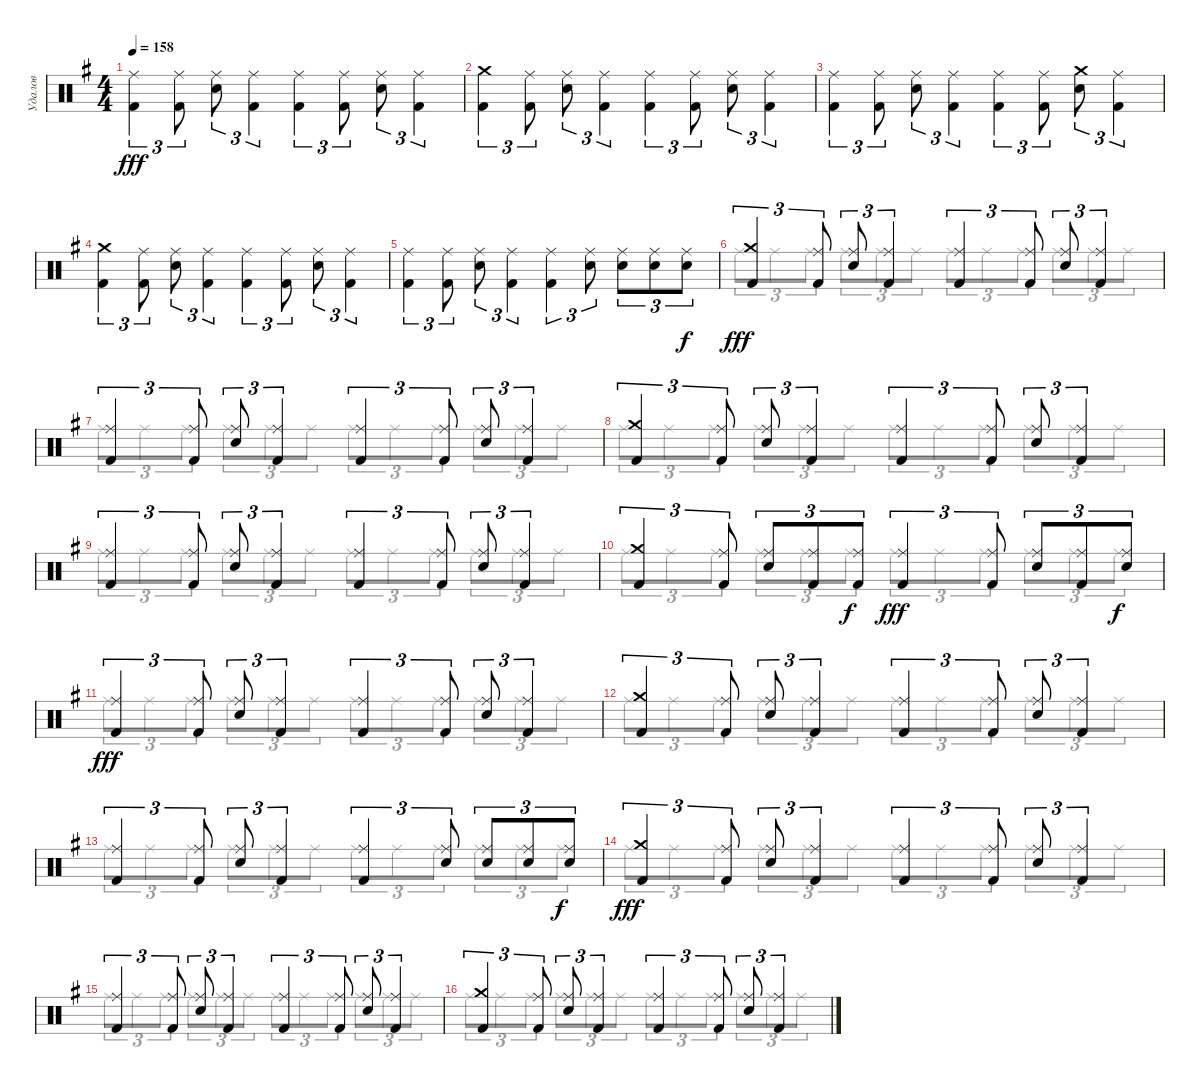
\track ("Удалов" "Удалов") {instrument percussion}
\staff {score}
\articulation defaults
\voice
\ts (4 4)
\tempo 158
\clef neutral
\ks g
("Kick (hit) 2" "Ride (middle)").4{tu (3 2) dy fff} ("Kick (hit) 2" "Ride (middle)").8{tu (3 2)} ("Electric Snare (hit)" "Ride (middle)").8{tu (3 2)} ("Kick (hit) 2" "Ride (middle)").4{tu (3 2)} ("Kick (hit) 2" "Ride (middle)").4{tu (3 2)} ("Kick (hit) 2" "Ride (middle)").8{tu (3 2)} ("Electric Snare (hit)" "Ride (middle)").8{tu (3 2)} ("Kick (hit) 2" "Ride (middle)").4{tu (3 2)} |
("Kick (hit) 2" "Crash medium (hit)").4{tu (3 2)} ("Kick (hit) 2" "Ride (middle)").8{tu (3 2)} ("Electric Snare (hit)" "Ride (middle)").8{tu (3 2)} ("Kick (hit) 2" "Ride (middle)").4{tu (3 2)} ("Kick (hit) 2" "Ride (middle)").4{tu (3 2)} ("Kick (hit) 2" "Ride (middle)").8{tu (3 2)} ("Electric Snare (hit)" "Ride (middle)").8{tu (3 2)} ("Kick (hit) 2" "Ride (middle)").4{tu (3 2)} |
("Kick (hit) 2" "Ride (middle)").4{tu (3 2)} ("Kick (hit) 2" "Ride (middle)").8{tu (3 2)} ("Electric Snare (hit)" "Ride (middle)").8{tu (3 2)} ("Kick (hit) 2" "Ride (middle)").4{tu (3 2)} ("Kick (hit) 2" "Ride (middle)").4{tu (3 2)} ("Kick (hit) 2" "Ride (middle)").8{tu (3 2)} ("Electric Snare (hit)" "Crash medium (hit)").8{tu (3 2)} ("Kick (hit) 2" "Ride (middle)").4{tu (3 2)} |
("Kick (hit) 2" "Crash medium (hit)").4{tu (3 2)} ("Kick (hit) 2" "Ride (middle)").8{tu (3 2)} ("Electric Snare (hit)" "Ride (middle)").8{tu (3 2)} ("Kick (hit) 2" "Ride (middle)").4{tu (3 2)} ("Kick (hit) 2" "Ride (middle)").4{tu (3 2)} ("Kick (hit) 2" "Ride (middle)").8{tu (3 2)} ("Electric Snare (hit)" "Ride (middle)").8{tu (3 2)} ("Kick (hit) 2" "Ride (middle)").4{tu (3 2)} |
("Kick (hit) 2" "Ride (middle)").4{tu (3 2)} ("Kick (hit) 2" "Ride (middle)").8{tu (3 2)} ("Electric Snare (hit)" "Ride (middle)").8{tu (3 2)} ("Kick (hit) 2" "Ride (middle)").4{tu (3 2)} ("Kick (hit) 2" "Ride (middle)").4{tu (3 2)} ("Electric Snare (hit)" "Ride (middle)").8{tu (3 2)} ("Electric Snare (hit)" "Ride (middle)").8{tu (3 2)} ("Electric Snare (hit)" "Ride (middle)").8{tu (3 2)} ("Electric Snare (hit)" "Ride (middle)").8{tu (3 2) dy f} |
("Kick (hit) 2" "Crash medium (hit)").4{tu (3 2) dy fff} ("Kick (hit) 2" "Ride (middle)").8{tu (3 2)} ("Electric Snare (hit)" "Ride (middle)").8{tu (3 2)} ("Kick (hit) 2" "Ride (middle)").4{tu (3 2)} ("Kick (hit) 2" "Ride (middle)").4{tu (3 2)} ("Kick (hit) 2" "Ride (middle)").8{tu (3 2)} ("Electric Snare (hit)" "Ride (middle)").8{tu (3 2)} ("Kick (hit) 2" "Ride (middle)").4{tu (3 2)} |
("Kick (hit) 2" "Ride (middle)").4{tu (3 2)} ("Kick (hit) 2" "Ride (middle)").8{tu (3 2)} ("Electric Snare (hit)" "Ride (middle)").8{tu (3 2)} ("Kick (hit) 2" "Ride (middle)").4{tu (3 2)} ("Kick (hit) 2" "Ride (middle)").4{tu (3 2)} ("Kick (hit) 2" "Ride (middle)").8{tu (3 2)} ("Electric Snare (hit)" "Ride (middle)").8{tu (3 2)} ("Kick (hit) 2" "Ride (middle)").4{tu (3 2)} |
("Kick (hit) 2" "Crash medium (hit)").4{tu (3 2)} ("Kick (hit) 2" "Ride (middle)").8{tu (3 2)} ("Electric Snare (hit)" "Ride (middle)").8{tu (3 2)} ("Kick (hit) 2" "Ride (middle)").4{tu (3 2)} ("Kick (hit) 2" "Ride (middle)").4{tu (3 2)} ("Kick (hit) 2" "Ride (middle)").8{tu (3 2)} ("Electric Snare (hit)" "Ride (middle)").8{tu (3 2)} ("Kick (hit) 2" "Ride (middle)").4{tu (3 2)} |
("Kick (hit) 2" "Ride (middle)").4{tu (3 2)} ("Kick (hit) 2" "Ride (middle)").8{tu (3 2)} ("Electric Snare (hit)" "Ride (middle)").8{tu (3 2)} ("Kick (hit) 2" "Ride (middle)").4{tu (3 2)} ("Kick (hit) 2" "Ride (middle)").4{tu (3 2)} ("Kick (hit) 2" "Ride (middle)").8{tu (3 2)} ("Electric Snare (hit)" "Ride (middle)").8{tu (3 2)} ("Kick (hit) 2" "Ride (middle)").4{tu (3 2)} |
("Kick (hit) 2" "Crash medium (hit)").4{tu (3 2)} ("Kick (hit) 2" "Ride (middle)").8{tu (3 2)} ("Electric Snare (hit)" "Ride (middle)").8{tu (3 2)} ("Kick (hit) 2" "Ride (middle)").8{tu (3 2)} ("Kick (hit) 2" "Ride (middle)").8{tu (3 2) dy f} ("Kick (hit) 2" "Ride (middle)").4{tu (3 2) dy fff} ("Kick (hit) 2" "Ride (middle)").8{tu (3 2)} ("Electric Snare (hit)" "Ride (middle)").8{tu (3 2)} ("Kick (hit) 2" "Ride (middle)").8{tu (3 2)} ("Electric Snare (hit)" "Ride (middle)").8{tu (3 2) dy f} |
("Kick (hit) 2" "Ride (middle)").4{tu (3 2) dy fff} ("Kick (hit) 2" "Ride (middle)").8{tu (3 2)} ("Electric Snare (hit)" "Ride (middle)").8{tu (3 2)} ("Kick (hit) 2" "Ride (middle)").4{tu (3 2)} ("Kick (hit) 2" "Ride (middle)").4{tu (3 2)} ("Kick (hit) 2" "Ride (middle)").8{tu (3 2)} ("Electric Snare (hit)" "Ride (middle)").8{tu (3 2)} ("Kick (hit) 2" "Ride (middle)").4{tu (3 2)} |
("Kick (hit) 2" "Crash medium (hit)").4{tu (3 2)} ("Kick (hit) 2" "Ride (middle)").8{tu (3 2)} ("Electric Snare (hit)" "Ride (middle)").8{tu (3 2)} ("Kick (hit) 2" "Ride (middle)").4{tu (3 2)} ("Kick (hit) 2" "Ride (middle)").4{tu (3 2)} ("Kick (hit) 2" "Ride (middle)").8{tu (3 2)} ("Electric Snare (hit)" "Ride (middle)").8{tu (3 2)} ("Kick (hit) 2" "Ride (middle)").4{tu (3 2)} |
("Kick (hit) 2" "Ride (middle)").4{tu (3 2)} ("Kick (hit) 2" "Ride (middle)").8{tu (3 2)} ("Electric Snare (hit)" "Ride (middle)").8{tu (3 2)} ("Kick (hit) 2" "Ride (middle)").4{tu (3 2)} ("Kick (hit) 2" "Ride (middle)").4{tu (3 2)} ("Electric Snare (hit)" "Ride (middle)").8{tu (3 2)} ("Electric Snare (hit)" "Ride (middle)").8{tu (3 2)} ("Electric Snare (hit)" "Ride (middle)").8{tu (3 2)} ("Electric Snare (hit)" "Ride (middle)").8{tu (3 2) dy f} |
("Kick (hit) 2" "Crash medium (hit)").4{tu (3 2) dy fff} ("Kick (hit) 2" "Ride (middle)").8{tu (3 2)} ("Electric Snare (hit)" "Ride (middle)").8{tu (3 2)} ("Kick (hit) 2" "Ride (middle)").4{tu (3 2)} ("Kick (hit) 2" "Ride (middle)").4{tu (3 2)} ("Kick (hit) 2" "Ride (middle)").8{tu (3 2)} ("Electric Snare (hit)" "Ride (middle)").8{tu (3 2)} ("Kick (hit) 2" "Ride (middle)").4{tu (3 2)} |
("Kick (hit) 2" "Ride (middle)").4{tu (3 2)} ("Kick (hit) 2" "Ride (middle)").8{tu (3 2)} ("Electric Snare (hit)" "Ride (middle)").8{tu (3 2)} ("Kick (hit) 2" "Ride (middle)").4{tu (3 2)} ("Kick (hit) 2" "Ride (middle)").4{tu (3 2)} ("Kick (hit) 2" "Ride (middle)").8{tu (3 2)} ("Electric Snare (hit)" "Ride (middle)").8{tu (3 2)} ("Kick (hit) 2" "Ride (middle)").4{tu (3 2)} |
("Kick (hit) 2" "Crash medium (hit)").4{tu (3 2)} ("Kick (hit) 2" "Ride (middle)").8{tu (3 2)} ("Electric Snare (hit)" "Ride (middle)").8{tu (3 2)} ("Kick (hit) 2" "Ride (middle)").4{tu (3 2)} ("Kick (hit) 2" "Ride (middle)").4{tu (3 2)} ("Kick (hit) 2" "Ride (middle)").8{tu (3 2)} ("Electric Snare (hit)" "Ride (middle)").8{tu (3 2)} ("Kick (hit) 2" "Ride (middle)").4{tu (3 2)}
\voice
\clef neutral
\ottava regular
\simile none
\ks g
|
|
|
|
|
"Ride (middle)".8{tu (3 2) dy fff} "Ride (middle)".8{tu (3 2)} "Ride (middle)".8{tu (3 2)} "Ride (middle)".8{tu (3 2)} "Ride (middle)".8{tu (3 2)} "Ride (middle)".8{tu (3 2)} "Ride (middle)".8{tu (3 2)} "Ride (middle)".8{tu (3 2)} "Ride (middle)".8{tu (3 2)} "Ride (middle)".8{tu (3 2)} "Ride (middle)".8{tu (3 2)} "Ride (middle)".8{tu (3 2)} |
"Ride (middle)".8{tu (3 2)} "Ride (middle)".8{tu (3 2)} "Ride (middle)".8{tu (3 2)} "Ride (middle)".8{tu (3 2)} "Ride (middle)".8{tu (3 2)} "Ride (middle)".8{tu (3 2)} "Ride (middle)".8{tu (3 2)} "Ride (middle)".8{tu (3 2)} "Ride (middle)".8{tu (3 2)} "Ride (middle)".8{tu (3 2)} "Ride (middle)".8{tu (3 2)} "Ride (middle)".8{tu (3 2)} |
"Ride (middle)".8{tu (3 2)} "Ride (middle)".8{tu (3 2)} "Ride (middle)".8{tu (3 2)} "Ride (middle)".8{tu (3 2)} "Ride (middle)".8{tu (3 2)} "Ride (middle)".8{tu (3 2)} "Ride (middle)".8{tu (3 2)} "Ride (middle)".8{tu (3 2)} "Ride (middle)".8{tu (3 2)} "Ride (middle)".8{tu (3 2)} "Ride (middle)".8{tu (3 2)} "Ride (middle)".8{tu (3 2)} |
"Ride (middle)".8{tu (3 2)} "Ride (middle)".8{tu (3 2)} "Ride (middle)".8{tu (3 2)} "Ride (middle)".8{tu (3 2)} "Ride (middle)".8{tu (3 2)} "Ride (middle)".8{tu (3 2)} "Ride (middle)".8{tu (3 2)} "Ride (middle)".8{tu (3 2)} "Ride (middle)".8{tu (3 2)} "Ride (middle)".8{tu (3 2)} "Ride (middle)".8{tu (3 2)} "Ride (middle)".8{tu (3 2)} |
"Ride (middle)".8{tu (3 2)} "Ride (middle)".8{tu (3 2)} "Ride (middle)".8{tu (3 2)} "Ride (middle)".8{tu (3 2)} "Ride (middle)".8{tu (3 2)} "Ride (middle)".8{tu (3 2)} "Ride (middle)".8{tu (3 2)} "Ride (middle)".8{tu (3 2)} "Ride (middle)".8{tu (3 2)} "Ride (middle)".8{tu (3 2)} "Ride (middle)".8{tu (3 2)} "Ride (middle)".8{tu (3 2)} |
"Ride (middle)".8{tu (3 2)} "Ride (middle)".8{tu (3 2)} "Ride (middle)".8{tu (3 2)} "Ride (middle)".8{tu (3 2)} "Ride (middle)".8{tu (3 2)} "Ride (middle)".8{tu (3 2)} "Ride (middle)".8{tu (3 2)} "Ride (middle)".8{tu (3 2)} "Ride (middle)".8{tu (3 2)} "Ride (middle)".8{tu (3 2)} "Ride (middle)".8{tu (3 2)} "Ride (middle)".8{tu (3 2)} |
"Ride (middle)".8{tu (3 2)} "Ride (middle)".8{tu (3 2)} "Ride (middle)".8{tu (3 2)} "Ride (middle)".8{tu (3 2)} "Ride (middle)".8{tu (3 2)} "Ride (middle)".8{tu (3 2)} "Ride (middle)".8{tu (3 2)} "Ride (middle)".8{tu (3 2)} "Ride (middle)".8{tu (3 2)} "Ride (middle)".8{tu (3 2)} "Ride (middle)".8{tu (3 2)} "Ride (middle)".8{tu (3 2)} |
"Ride (middle)".8{tu (3 2)} "Ride (middle)".8{tu (3 2)} "Ride (middle)".8{tu (3 2)} "Ride (middle)".8{tu (3 2)} "Ride (middle)".8{tu (3 2)} "Ride (middle)".8{tu (3 2)} "Ride (middle)".8{tu (3 2)} "Ride (middle)".8{tu (3 2)} "Ride (middle)".8{tu (3 2)} "Ride (middle)".8{tu (3 2)} "Ride (middle)".8{tu (3 2)} "Ride (middle)".8{tu (3 2)} |
"Ride (middle)".8{tu (3 2)} "Ride (middle)".8{tu (3 2)} "Ride (middle)".8{tu (3 2)} "Ride (middle)".8{tu (3 2)} "Ride (middle)".8{tu (3 2)} "Ride (middle)".8{tu (3 2)} "Ride (middle)".8{tu (3 2)} "Ride (middle)".8{tu (3 2)} "Ride (middle)".8{tu (3 2)} "Ride (middle)".8{tu (3 2)} "Ride (middle)".8{tu (3 2)} "Ride (middle)".8{tu (3 2)} |
"Ride (middle)".8{tu (3 2)} "Ride (middle)".8{tu (3 2)} "Ride (middle)".8{tu (3 2)} "Ride (middle)".8{tu (3 2)} "Ride (middle)".8{tu (3 2)} "Ride (middle)".8{tu (3 2)} "Ride (middle)".8{tu (3 2)} "Ride (middle)".8{tu (3 2)} "Ride (middle)".8{tu (3 2)} "Ride (middle)".8{tu (3 2)} "Ride (middle)".8{tu (3 2)} "Ride (middle)".8{tu (3 2)} |
"Ride (middle)".8{tu (3 2)} "Ride (middle)".8{tu (3 2)} "Ride (middle)".8{tu (3 2)} "Ride (middle)".8{tu (3 2)} "Ride (middle)".8{tu (3 2)} "Ride (middle)".8{tu (3 2)} "Ride (middle)".8{tu (3 2)} "Ride (middle)".8{tu (3 2)} "Ride (middle)".8{tu (3 2)} "Ride (middle)".8{tu (3 2)} "Ride (middle)".8{tu (3 2)} "Ride (middle)".8{tu (3 2)}
